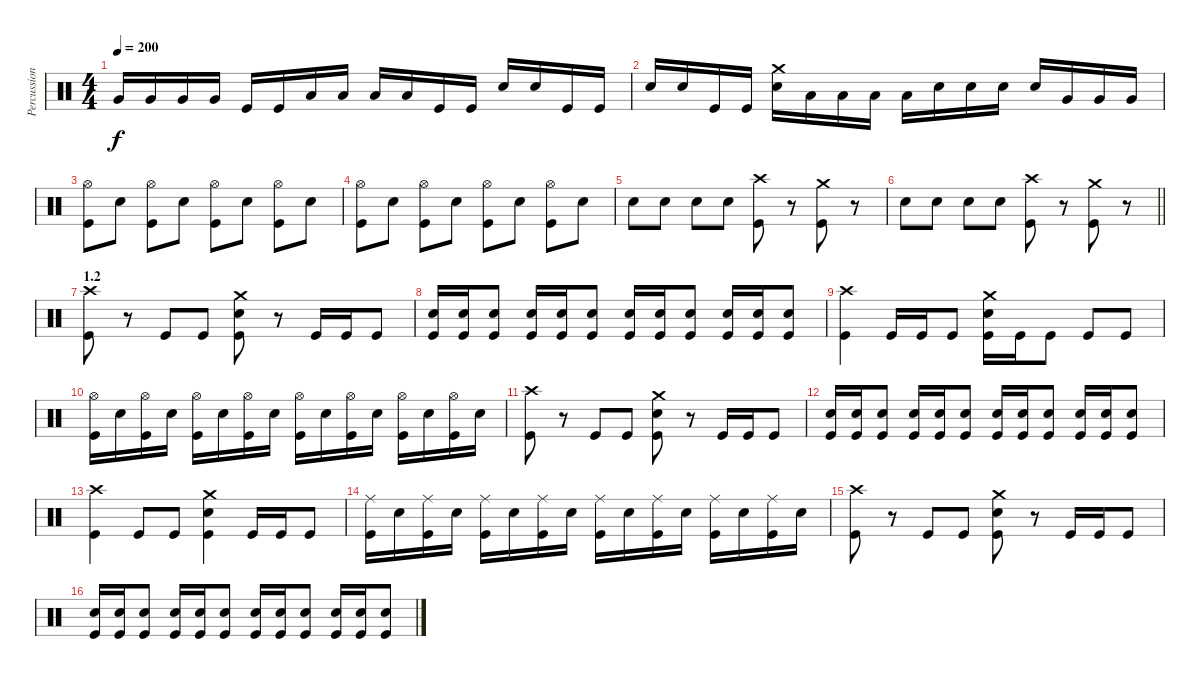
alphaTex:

\track ("Percussion" "Percussion") {instrument percussion}
\staff {score}
\articulation defaults
\ts (4 4)
\tempo 200
\clef neutral
\ks c "Very Low Tom (hit)".16{dy f} "Very Low Tom (hit)".16 "Very Low Tom (hit)".16 "Very Low Tom (hit)".16 "Kick (hit)".16 "Kick (hit)".16 "Low Floor Tom (hit)".16 "Low Floor Tom (hit)".16 "Low Floor Tom (hit)".16 "Low Floor Tom (hit)".16 "Kick (hit)".16 "Kick (hit)".16 "Snare (hit) 2".16 "Snare (hit) 2".16 "Kick (hit)".16 "Kick (hit)".16
|
"Snare (hit) 2".16 "Snare (hit) 2".16 "Kick (hit)".16 "Kick (hit)".16 ("Crash medium (hit)" "Snare (hit) 2").16 "Low Floor Tom (hit)".16 "Low Floor Tom (hit)".16 "Low Floor Tom (hit)".16 "Low Floor Tom (hit)".16 "Snare (hit) 2".16 "Snare (hit) 2".16 "Snare (hit) 2".16 "Snare (hit) 2".16 "Very Low Tom (hit)".16 "Very Low Tom (hit)".16 "Very Low Tom (hit)".16 |
("Hi-Hat (open)" "Kick (hit)").8 "Snare (hit) 2".8 ("Hi-Hat (open)" "Kick (hit)").8 "Snare (hit) 2".8 ("Hi-Hat (open)" "Kick (hit)").8 "Snare (hit) 2".8 ("Hi-Hat (open)" "Kick (hit)").8 "Snare (hit) 2".8 |
("Hi-Hat (open)" "Kick (hit)").8 "Snare (hit) 2".8 ("Hi-Hat (open)" "Kick (hit)").8 "Snare (hit) 2".8 ("Hi-Hat (open)" "Kick (hit)").8 "Snare (hit) 2".8 ("Hi-Hat (open)" "Kick (hit)").8 "Snare (hit) 2".8 |
"Snare (hit) 2".8 "Snare (hit) 2".8 "Snare (hit) 2".8 "Snare (hit) 2".8 ("Crash high (hit)" "Kick (hit)").8 r.8 ("Crash medium (hit)" "Kick (hit)").8 r.8 |
\barLineRight lightlight "Snare (hit) 2".8 "Snare (hit) 2".8 "Snare (hit) 2".8 "Snare (hit) 2".8
("Crash high (hit)" "Kick (hit)").8 r.8 ("Crash medium (hit)" "Kick (hit)").8 r.8 |
\section ("" "1.2")
("Crash high (hit)" "Kick (hit)").8 r.8 "Kick (hit)".8 "Kick (hit)".8 ("Crash medium (hit)" "Snare (hit) 2" "Kick (hit)").8 r.8 "Kick (hit)".16 "Kick (hit)".16 "Kick (hit)".8 |
("Snare (hit) 2" "Kick (hit)").16 ("Snare (hit) 2" "Kick (hit)").16 ("Snare (hit) 2" "Kick (hit)").8 ("Snare (hit) 2" "Kick (hit)").16 ("Snare (hit) 2" "Kick (hit)").16 ("Snare (hit) 2" "Kick (hit)").8 ("Snare (hit) 2" "Kick (hit)").16 ("Snare (hit) 2" "Kick (hit)").16 ("Snare (hit) 2" "Kick (hit)").8 ("Snare (hit) 2" "Kick (hit)").16 ("Snare (hit) 2" "Kick (hit)").16 ("Snare (hit) 2" "Kick (hit)").8 |
("Crash high (hit)" "Kick (hit)").4 "Kick (hit)".16 "Kick (hit)".16 "Kick (hit)".8 ("Crash medium (hit)" "Snare (hit) 2" "Kick (hit)").16 "Kick (hit)".16 "Kick (hit)".8 "Kick (hit)".8 "Kick (hit)".8 |
("Hi-Hat (open)" "Kick (hit)").16 "Snare (hit) 2".16 ("Hi-Hat (open)" "Kick (hit)").16 "Snare (hit) 2".16 ("Hi-Hat (open)" "Kick (hit)").16 "Snare (hit) 2".16 ("Hi-Hat (open)" "Kick (hit)").16 "Snare (hit) 2".16 ("Hi-Hat (open)" "Kick (hit)").16 "Snare (hit) 2".16 ("Hi-Hat (open)" "Kick (hit)").16 "Snare (hit) 2".16 ("Hi-Hat (open)" "Kick (hit)").16 "Snare (hit) 2".16 ("Hi-Hat (open)" "Kick (hit)").16 "Snare (hit) 2".16 |
("Crash high (hit)" "Kick (hit)").8 r.8 "Kick (hit)".8 "Kick (hit)".8 ("Crash medium (hit)" "Snare (hit) 2" "Kick (hit)").8 r.8 "Kick (hit)".16 "Kick (hit)".16 "Kick (hit)".8 |
("Snare (hit) 2" "Kick (hit)").16 ("Snare (hit) 2" "Kick (hit)").16 ("Snare (hit) 2" "Kick (hit)").8 ("Snare (hit) 2" "Kick (hit)").16 ("Snare (hit) 2" "Kick (hit)").16 ("Snare (hit) 2" "Kick (hit)").8 ("Snare (hit) 2" "Kick (hit)").16 ("Snare (hit) 2" "Kick (hit)").16 ("Snare (hit) 2" "Kick (hit)").8 ("Snare (hit) 2" "Kick (hit)").16 ("Snare (hit) 2" "Kick (hit)").16 ("Snare (hit) 2" "Kick (hit)").8 |
("Crash high (hit)" "Kick (hit)").4 "Kick (hit)".8 "Kick (hit)".8 ("Crash medium (hit)" "Snare (hit) 2" "Kick (hit)").4 "Kick (hit)".16 "Kick (hit)".16 "Kick (hit)".8 |
("Ride (middle)" "Kick (hit)").16 "Snare (hit) 2".16 ("Ride (middle)" "Kick (hit)").16 "Snare (hit) 2".16 ("Ride (middle)" "Kick (hit)").16 "Snare (hit) 2".16 ("Ride (middle)" "Kick (hit)").16 "Snare (hit) 2".16 ("Ride (middle)" "Kick (hit)").16 "Snare (hit) 2".16 ("Ride (middle)" "Kick (hit)").16 "Snare (hit) 2".16 ("Ride (middle)" "Kick (hit)").16 "Snare (hit) 2".16 ("Ride (middle)" "Kick (hit)").16 "Snare (hit) 2".16 |
("Crash high (hit)" "Kick (hit)").8 r.8 "Kick (hit)".8 "Kick (hit)".8 ("Crash medium (hit)" "Snare (hit) 2" "Kick (hit)").8 r.8 "Kick (hit)".16 "Kick (hit)".16 "Kick (hit)".8 |
("Snare (hit) 2" "Kick (hit)").16 ("Snare (hit) 2" "Kick (hit)").16 ("Snare (hit) 2" "Kick (hit)").8 ("Snare (hit) 2" "Kick (hit)").16 ("Snare (hit) 2" "Kick (hit)").16 ("Snare (hit) 2" "Kick (hit)").8 ("Snare (hit) 2" "Kick (hit)").16 ("Snare (hit) 2" "Kick (hit)").16 ("Snare (hit) 2" "Kick (hit)").8 ("Snare (hit) 2" "Kick (hit)").16 ("Snare (hit) 2" "Kick (hit)").16 ("Snare (hit) 2" "Kick (hit)").8
